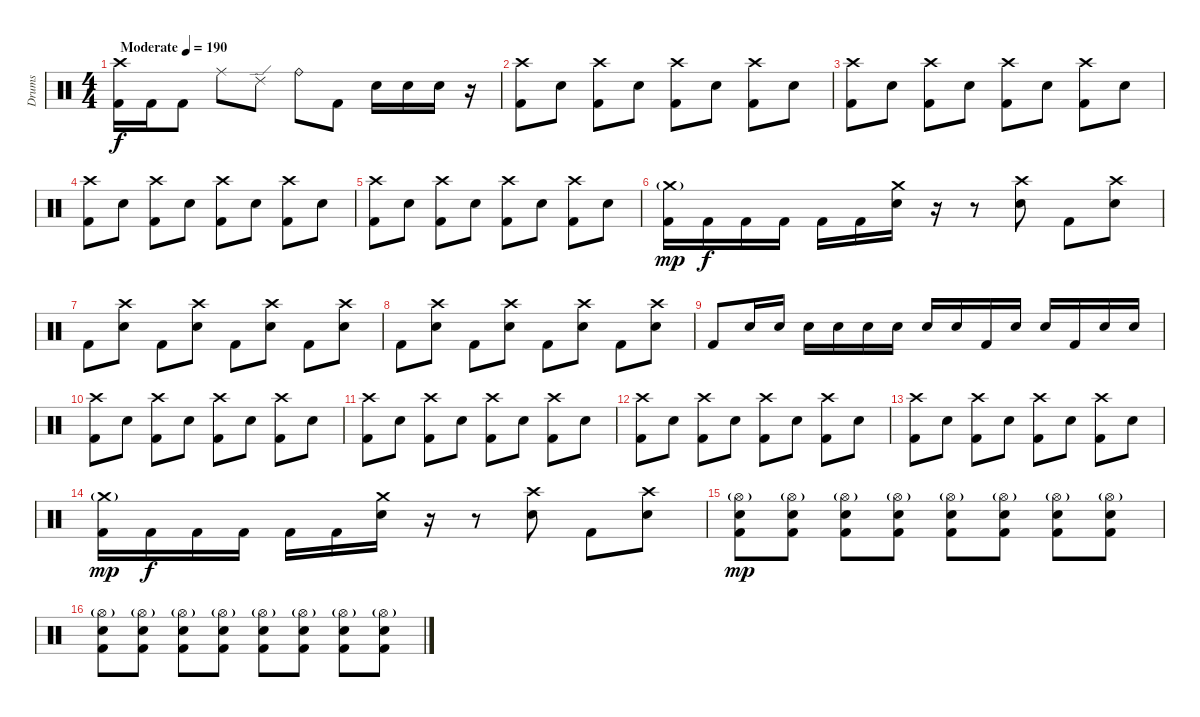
\track ("Drums" "Drums") {instrument percussion}
\staff {score}
\articulation defaults
\ts (4 4)
\tempo (190 "Moderate")
\clef neutral
\ks c
("Crash high (hit)" "Kick (hit) 2").16{dy f} "Kick (hit) 2".16 "Kick (hit) 2".8 "Ride (middle)".8 "Ride (edge) 2".8 "Ride (bell)".8 "Kick (hit) 2".8 "Electric Snare (hit)".16 "Electric Snare (hit)".16 "Electric Snare (hit)".16 r.16 |
("Crash high (hit)" "Kick (hit) 2").8 "Electric Snare (hit)".8 ("Crash high (hit)" "Kick (hit) 2").8 "Electric Snare (hit)".8 ("Crash high (hit)" "Kick (hit) 2").8 "Electric Snare (hit)".8 ("Crash high (hit)" "Kick (hit) 2").8 "Electric Snare (hit)".8 |
("Crash high (hit)" "Kick (hit) 2").8 "Electric Snare (hit)".8 ("Crash high (hit)" "Kick (hit) 2").8 "Electric Snare (hit)".8 ("Crash high (hit)" "Kick (hit) 2").8 "Electric Snare (hit)".8 ("Crash high (hit)" "Kick (hit) 2").8 "Electric Snare (hit)".8 |
("Crash high (hit)" "Kick (hit) 2").8 "Electric Snare (hit)".8 ("Crash high (hit)" "Kick (hit) 2").8 "Electric Snare (hit)".8 ("Crash high (hit)" "Kick (hit) 2").8 "Electric Snare (hit)".8 ("Crash high (hit)" "Kick (hit) 2").8 "Electric Snare (hit)".8 |
("Crash high (hit)" "Kick (hit) 2").8 "Electric Snare (hit)".8 ("Crash high (hit)" "Kick (hit) 2").8 "Electric Snare (hit)".8 ("Crash high (hit)" "Kick (hit) 2").8 "Electric Snare (hit)".8 ("Crash high (hit)" "Kick (hit) 2").8 "Electric Snare (hit)".8 |
("Crash medium (hit)"{g} "Kick (hit) 2").16{dy mp} "Kick (hit) 2".16{dy f} "Kick (hit) 2".16 "Kick (hit) 2".16 "Kick (hit) 2".16 "Kick (hit) 2".16 ("Crash medium (hit)" "Electric Snare (hit)").16 r.16 r.8 ("Crash high (hit)" "Electric Snare (hit)").8 "Kick (hit) 2".8 ("Crash high (hit)" "Electric Snare (hit)").8 |
"Kick (hit) 2".8 ("Crash high (hit)" "Electric Snare (hit)").8 "Kick (hit) 2".8 ("Crash high (hit)" "Electric Snare (hit)").8 "Kick (hit) 2".8 ("Crash high (hit)" "Electric Snare (hit)").8 "Kick (hit) 2".8 ("Crash high (hit)" "Electric Snare (hit)").8 |
"Kick (hit) 2".8 ("Crash high (hit)" "Electric Snare (hit)").8 "Kick (hit) 2".8 ("Crash high (hit)" "Electric Snare (hit)").8 "Kick (hit) 2".8 ("Crash high (hit)" "Electric Snare (hit)").8 "Kick (hit) 2".8 ("Crash high (hit)" "Electric Snare (hit)").8 |
"Kick (hit) 2".8 "Electric Snare (hit)".16 "Electric Snare (hit)".16 "Electric Snare (hit)".16 "Electric Snare (hit)".16 "Electric Snare (hit)".16 "Electric Snare (hit)".16 "Electric Snare (hit)".16 "Electric Snare (hit)".16 "Kick (hit) 2".16 "Electric Snare (hit)".16 "Electric Snare (hit)".16 "Kick (hit) 2".16 "Electric Snare (hit)".16 "Electric Snare (hit)".16 |
("Crash high (hit)" "Kick (hit) 2").8 "Electric Snare (hit)".8 ("Crash high (hit)" "Kick (hit) 2").8 "Electric Snare (hit)".8 ("Crash high (hit)" "Kick (hit) 2").8 "Electric Snare (hit)".8 ("Crash high (hit)" "Kick (hit) 2").8 "Electric Snare (hit)".8 |
("Crash high (hit)" "Kick (hit) 2").8 "Electric Snare (hit)".8 ("Crash high (hit)" "Kick (hit) 2").8 "Electric Snare (hit)".8 ("Crash high (hit)" "Kick (hit) 2").8 "Electric Snare (hit)".8 ("Crash high (hit)" "Kick (hit) 2").8 "Electric Snare (hit)".8 |
("Crash high (hit)" "Kick (hit) 2").8 "Electric Snare (hit)".8 ("Crash high (hit)" "Kick (hit) 2").8 "Electric Snare (hit)".8 ("Crash high (hit)" "Kick (hit) 2").8 "Electric Snare (hit)".8 ("Crash high (hit)" "Kick (hit) 2").8 "Electric Snare (hit)".8 |
("Crash high (hit)" "Kick (hit) 2").8 "Electric Snare (hit)".8 ("Crash high (hit)" "Kick (hit) 2").8 "Electric Snare (hit)".8 ("Crash high (hit)" "Kick (hit) 2").8 "Electric Snare (hit)".8 ("Crash high (hit)" "Kick (hit) 2").8 "Electric Snare (hit)".8 |
("Crash medium (hit)"{g} "Kick (hit) 2").16{dy mp} "Kick (hit) 2".16{dy f} "Kick (hit) 2".16 "Kick (hit) 2".16 "Kick (hit) 2".16 "Kick (hit) 2".16 ("Crash medium (hit)" "Electric Snare (hit)").16 r.16 r.8 ("Crash high (hit)" "Electric Snare (hit)").8 "Kick (hit) 2".8 ("Crash high (hit)" "Electric Snare (hit)").8 |
("Hi-Hat (open)"{g} "Electric Snare (hit)" "Kick (hit) 2").8{dy mp} ("Hi-Hat (open)"{g} "Electric Snare (hit)" "Kick (hit) 2").8 ("Hi-Hat (open)"{g} "Electric Snare (hit)" "Kick (hit) 2").8 ("Hi-Hat (open)"{g} "Electric Snare (hit)" "Kick (hit) 2").8 ("Hi-Hat (open)"{g} "Electric Snare (hit)" "Kick (hit) 2").8 ("Hi-Hat (open)"{g} "Electric Snare (hit)" "Kick (hit) 2").8 ("Hi-Hat (open)"{g} "Electric Snare (hit)" "Kick (hit) 2").8 ("Hi-Hat (open)"{g} "Electric Snare (hit)" "Kick (hit) 2").8 |
("Hi-Hat (open)"{g} "Electric Snare (hit)" "Kick (hit) 2").8 ("Hi-Hat (open)"{g} "Electric Snare (hit)" "Kick (hit) 2").8 ("Hi-Hat (open)"{g} "Electric Snare (hit)" "Kick (hit) 2").8 ("Hi-Hat (open)"{g} "Electric Snare (hit)" "Kick (hit) 2").8 ("Hi-Hat (open)"{g} "Electric Snare (hit)" "Kick (hit) 2").8 ("Hi-Hat (open)"{g} "Electric Snare (hit)" "Kick (hit) 2").8 ("Hi-Hat (open)"{g} "Electric Snare (hit)" "Kick (hit) 2").8 ("Hi-Hat (open)"{g} "Electric Snare (hit)" "Kick (hit) 2").8
